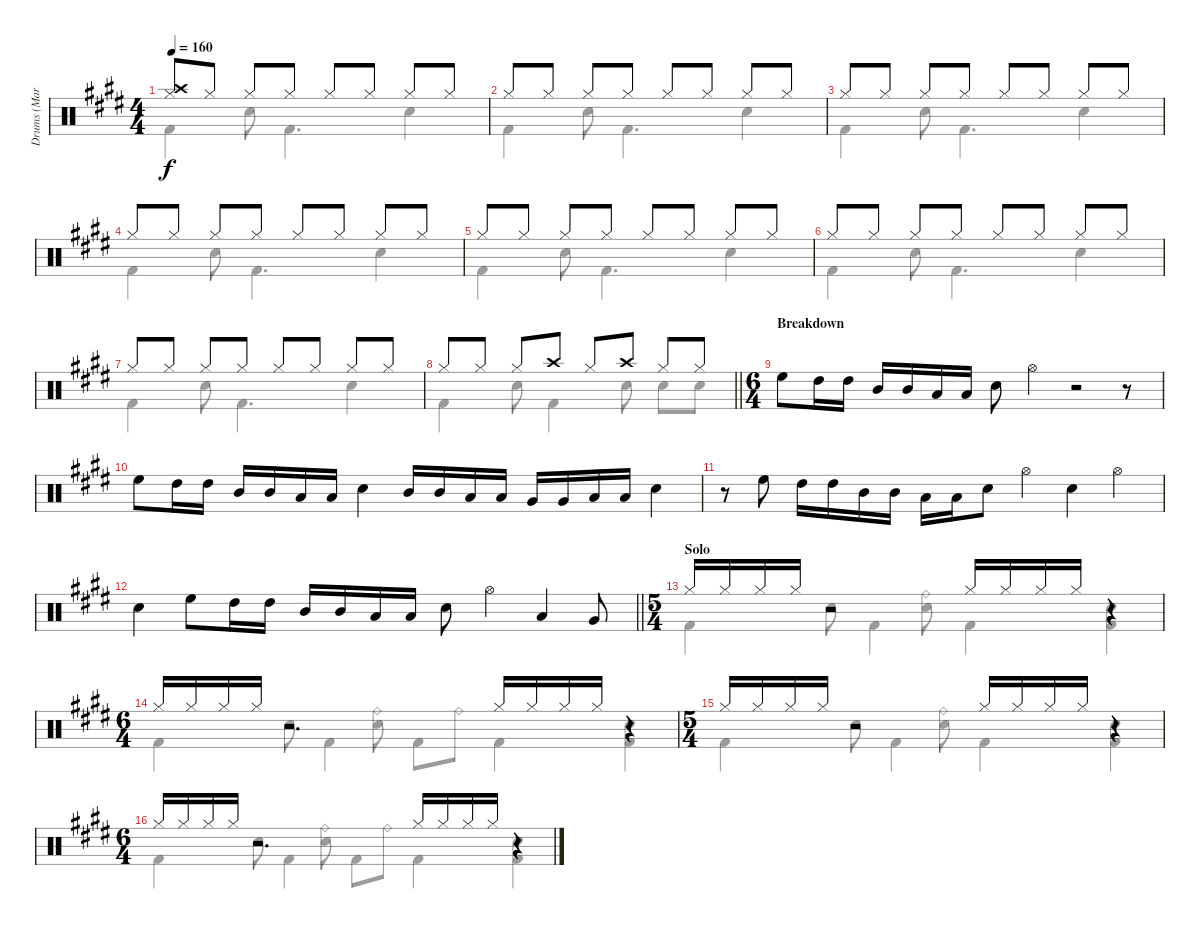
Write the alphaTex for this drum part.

\track ("Drums (Mark Zonder)" "Drums (Mar") {instrument percussion}
\staff {score}
\articulation defaults
\voice
\ts (4 4)
\tempo 160
\clef neutral
\ks c#minor
("Hi-Hat (closed)" "Crash high (hit)").8{dy f} "Hi-Hat (closed)".8 "Hi-Hat (closed)".8 "Hi-Hat (closed)".8 "Hi-Hat (closed)".8 "Hi-Hat (closed)".8 "Hi-Hat (closed)".8 "Hi-Hat (closed)".8 |
"Hi-Hat (closed)".8 "Hi-Hat (closed)".8 "Hi-Hat (closed)".8 "Hi-Hat (closed)".8 "Hi-Hat (closed)".8 "Hi-Hat (closed)".8 "Hi-Hat (closed)".8 "Hi-Hat (closed)".8 |
"Hi-Hat (closed)".8 "Hi-Hat (closed)".8 "Hi-Hat (closed)".8 "Hi-Hat (closed)".8 "Hi-Hat (closed)".8 "Hi-Hat (closed)".8 "Hi-Hat (closed)".8 "Hi-Hat (closed)".8 |
"Hi-Hat (closed)".8 "Hi-Hat (closed)".8 "Hi-Hat (closed)".8 "Hi-Hat (closed)".8 "Hi-Hat (closed)".8 "Hi-Hat (closed)".8 "Hi-Hat (closed)".8 "Hi-Hat (closed)".8 |
"Hi-Hat (closed)".8 "Hi-Hat (closed)".8 "Hi-Hat (closed)".8 "Hi-Hat (closed)".8 "Hi-Hat (closed)".8 "Hi-Hat (closed)".8 "Hi-Hat (closed)".8 "Hi-Hat (closed)".8 |
"Hi-Hat (closed)".8 "Hi-Hat (closed)".8 "Hi-Hat (closed)".8 "Hi-Hat (closed)".8 "Hi-Hat (closed)".8 "Hi-Hat (closed)".8 "Hi-Hat (closed)".8 "Hi-Hat (closed)".8 |
"Hi-Hat (closed)".8 "Hi-Hat (closed)".8 "Hi-Hat (closed)".8 "Hi-Hat (closed)".8 "Hi-Hat (closed)".8 "Hi-Hat (closed)".8 "Hi-Hat (closed)".8 "Hi-Hat (closed)".8 |
\barLineRight lightlight "Hi-Hat (closed)".8 "Hi-Hat (closed)".8 "Hi-Hat (closed)".8 "Crash high (hit)".8 "Hi-Hat (closed)".8 "Crash high (hit)".8 "Hi-Hat (closed)".8 "Hi-Hat (closed)".8
|
\ts (6 4)
\section ("" "Breakdown")
"High Floor Tom (hit)".8 "High Tom (hit)".16 "High Tom (hit)".16 "Mid Tom (hit)".16 "Mid Tom (hit)".16 "Low Tom (hit)".16 "Low Tom (hit)".16 "Electric Snare (hit)".8 "Hi-Hat (open)".4 r.2 r.8 |
"High Floor Tom (hit)".8 "High Tom (hit)".16 "High Tom (hit)".16 "Mid Tom (hit)".16 "Mid Tom (hit)".16 "Low Tom (hit)".16 "Low Tom (hit)".16 "Electric Snare (hit)".4 "Mid Tom (hit)".16 "Mid Tom (hit)".16 "Low Tom (hit)".16 "Low Tom (hit)".16 "Very Low Tom (hit)".16 "Very Low Tom (hit)".16 "Low Floor Tom (hit)".16 "Low Floor Tom (hit)".16 "Electric Snare (hit)".4 |
r.8 "High Floor Tom (hit)".8 "High Tom (hit)".16 "High Tom (hit)".16 "Mid Tom (hit)".16 "Mid Tom (hit)".16 "Low Tom (hit)".16 "Low Tom (hit)".16 "Electric Snare (hit)".8 "Hi-Hat (open)".4 "Electric Snare (hit)".4 "Hi-Hat (open)".4 |
\barLineRight lightlight "Electric Snare (hit)".4 "High Floor Tom (hit)".8 "High Tom (hit)".16 "High Tom (hit)".16 "Mid Tom (hit)".16 "Mid Tom (hit)".16 "Low Tom (hit)".16 "Low Tom (hit)".16 "Electric Snare (hit)".8 "Hi-Hat (open)".4 "Low Tom (hit)".4 "Very Low Tom (hit)".8
|
\ts (5 4)
\section ("" "Solo")
"Hi-Hat (closed)".16 "Hi-Hat (closed)".16 "Hi-Hat (closed)".16 "Hi-Hat (closed)".16 r.2 "Hi-Hat (closed)".16 "Hi-Hat (closed)".16 "Hi-Hat (closed)".16 "Hi-Hat (closed)".16 r.4 |
\ts (6 4)
"Hi-Hat (closed)".16 "Hi-Hat (closed)".16 "Hi-Hat (closed)".16 "Hi-Hat (closed)".16 r.2{d} "Hi-Hat (closed)".16 "Hi-Hat (closed)".16 "Hi-Hat (closed)".16 "Hi-Hat (closed)".16 r.4 |
\ts (5 4)
"Hi-Hat (closed)".16 "Hi-Hat (closed)".16 "Hi-Hat (closed)".16 "Hi-Hat (closed)".16 r.2 "Hi-Hat (closed)".16 "Hi-Hat (closed)".16 "Hi-Hat (closed)".16 "Hi-Hat (closed)".16 r.4 |
\ts (6 4)
"Hi-Hat (closed)".16 "Hi-Hat (closed)".16 "Hi-Hat (closed)".16 "Hi-Hat (closed)".16 r.2{d} "Hi-Hat (closed)".16 "Hi-Hat (closed)".16 "Hi-Hat (closed)".16 "Hi-Hat (closed)".16 r.4
\voice
\clef neutral
\ottava regular
\simile none
\ks c#minor "Kick (hit) 2".4{dy f} "Electric Snare (hit)".8 "Kick (hit) 2".4{d} "Electric Snare (hit)".4
|
"Kick (hit) 2".4 "Electric Snare (hit)".8 "Kick (hit) 2".4{d} "Electric Snare (hit)".4 |
"Kick (hit) 2".4 "Electric Snare (hit)".8 "Kick (hit) 2".4{d} "Electric Snare (hit)".4 |
"Kick (hit) 2".4 "Electric Snare (hit)".8 "Kick (hit) 2".4{d} "Electric Snare (hit)".4 |
"Kick (hit) 2".4 "Electric Snare (hit)".8 "Kick (hit) 2".4{d} "Electric Snare (hit)".4 |
"Kick (hit) 2".4 "Electric Snare (hit)".8 "Kick (hit) 2".4{d} "Electric Snare (hit)".4 |
"Kick (hit) 2".4 "Electric Snare (hit)".8 "Kick (hit) 2".4{d} "Electric Snare (hit)".4 |
\barLineRight lightlight "Kick (hit) 2".4 "Electric Snare (hit)".8 "Kick (hit) 2".4 "Electric Snare (hit)".8 "Electric Snare (hit)".8 "Electric Snare (hit)".8
|
|
|
|
\barLineRight lightlight
|
"Kick (hit) 2".4 "Electric Snare (hit)".8 "Kick (hit) 2".4 ("Ride (bell)" "Electric Snare (hit)").8 "Kick (hit) 2".4 ("Electric Snare (hit)" "Kick (hit) 2").4 |
"Kick (hit) 2".4 "Electric Snare (hit)".8 "Kick (hit) 2".4 ("Ride (bell)" "Electric Snare (hit)").8 "Kick (hit) 2".8 "Ride (bell)".8 "Kick (hit) 2".4 ("Electric Snare (hit)" "Kick (hit) 2").4 |
"Kick (hit) 2".4 "Electric Snare (hit)".8 "Kick (hit) 2".4 ("Ride (bell)" "Electric Snare (hit)").8 "Kick (hit) 2".4 ("Electric Snare (hit)" "Kick (hit) 2").4 |
"Kick (hit) 2".4 "Electric Snare (hit)".8 "Kick (hit) 2".4 ("Ride (bell)" "Electric Snare (hit)").8 "Kick (hit) 2".8 "Ride (bell)".8 "Kick (hit) 2".4 ("Electric Snare (hit)" "Kick (hit) 2").4
